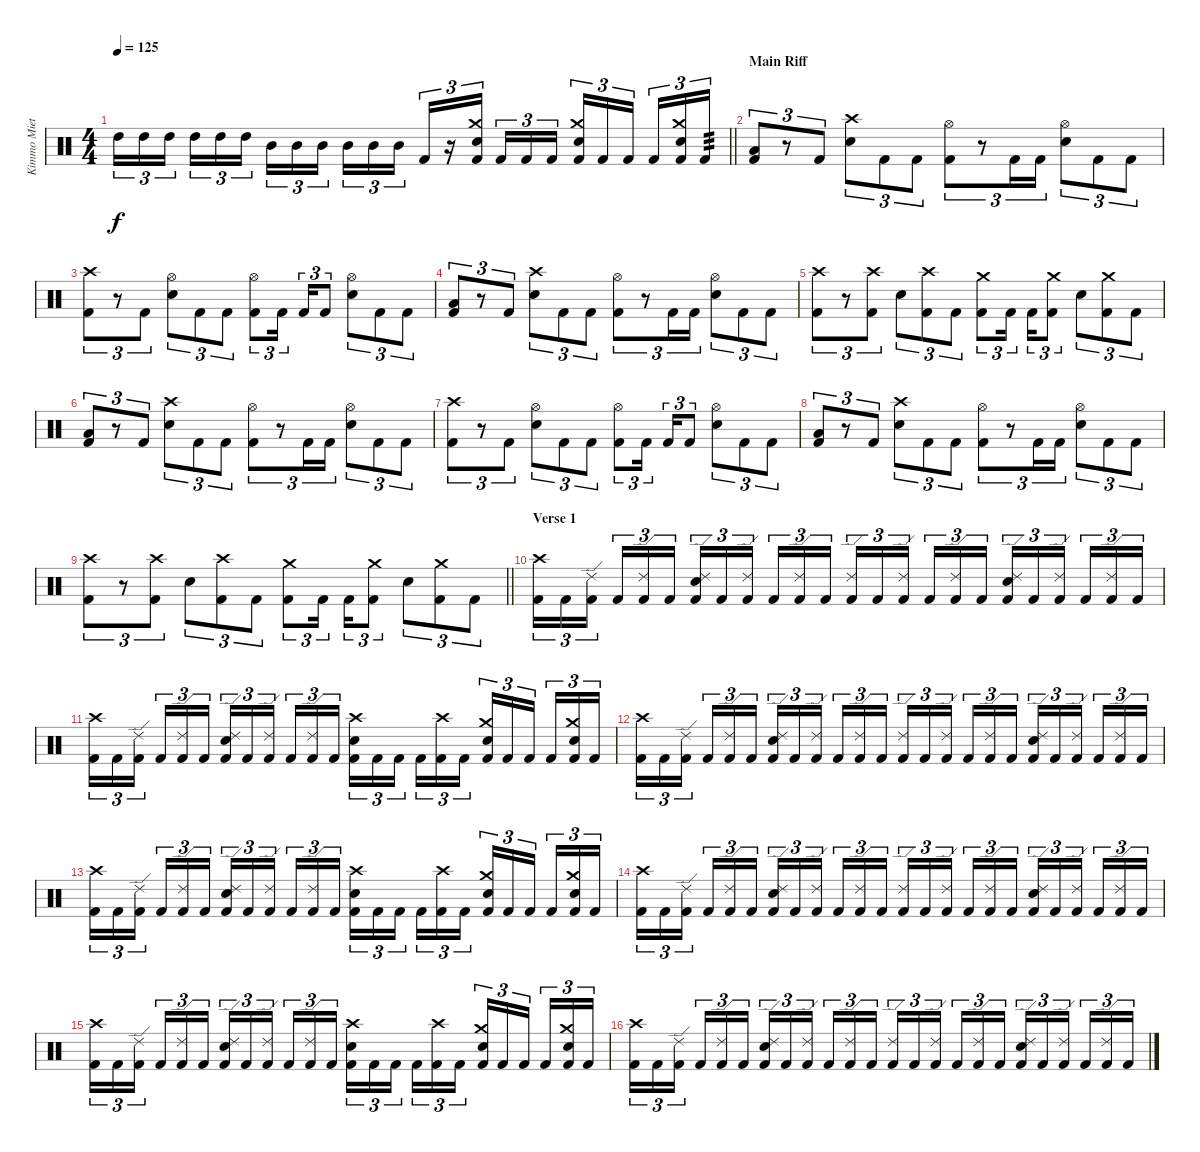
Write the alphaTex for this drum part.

\track ("Kimmo Miettinen" "Kimmo Miet") {instrument percussion}
\staff {score}
\articulation defaults
\ts (4 4)
\tempo 125
\clef neutral
\barLineRight lightlight
\ks c "High Tom (hit)".16{tu (3 2) dy f} "High Tom (hit)".16{tu (3 2)} "High Tom (hit)".16{tu (3 2) beam splitsecondary} "High Tom (hit)".16{tu (3 2)} "High Tom (hit)".16{tu (3 2)} "High Tom (hit)".16{tu (3 2)} "Mid Tom (hit)".16{tu (3 2)} "Mid Tom (hit)".16{tu (3 2)} "Mid Tom (hit)".16{tu (3 2) beam splitsecondary} "Mid Tom (hit)".16{tu (3 2)} "Mid Tom (hit)".16{tu (3 2)} "Mid Tom (hit)".16{tu (3 2)} "Kick (hit) 2".16{tu (3 2)}
r.16{tu (3 2)} ("Crash medium (hit)" "Electric Snare (hit)" "Kick (hit) 2").16{tu (3 2) beam splitsecondary} "Kick (hit) 2".16{tu (3 2)} "Kick (hit) 2".16{tu (3 2)} "Kick (hit) 2".16{tu (3 2)} ("Crash medium (hit)" "Electric Snare (hit)" "Kick (hit) 2").16{tu (3 2)} "Kick (hit) 2".16{tu (3 2)} "Kick (hit) 2".16{tu (3 2) beam splitsecondary} "Kick (hit) 2".16{tu (3 2)} ("Crash medium (hit)" "Electric Snare (hit)" "Kick (hit) 2").16{tu (3 2)} "Kick (hit) 2".16{tu (3 2) tp 3} |
\section ("" "Main Riff")
("Low Floor Tom (hit)" "Kick (hit) 2").8{tu (3 2)} r.8{tu (3 2)} "Kick (hit) 2".8{tu (3 2)} ("Crash high (hit)" "Electric Snare (hit)").8{tu (3 2)} "Kick (hit) 2".8{tu (3 2)} "Kick (hit) 2".8{tu (3 2)} ("Hi-Hat (open)" "Kick (hit) 2").8{tu (3 2)} r.8{tu (3 2)} "Kick (hit) 2".16{tu (3 2)} "Kick (hit) 2".16{tu (3 2)} ("Hi-Hat (open)" "Electric Snare (hit)").8{tu (3 2)} "Kick (hit) 2".8{tu (3 2)} "Kick (hit) 2".8{tu (3 2)} |
("Crash high (hit)" "Kick (hit) 2").8{tu (3 2)} r.8{tu (3 2)} "Kick (hit) 2".8{tu (3 2)} ("Hi-Hat (open)" "Electric Snare (hit)").8{tu (3 2)} "Kick (hit) 2".8{tu (3 2)} "Kick (hit) 2".8{tu (3 2)} ("Hi-Hat (open)" "Kick (hit) 2").8{tu (3 2)} "Kick (hit) 2".16{tu (3 2) beam splitsecondary} "Kick (hit) 2".16{tu (3 2)} "Kick (hit) 2".8{tu (3 2)} ("Hi-Hat (open)" "Electric Snare (hit)").8{tu (3 2)} "Kick (hit) 2".8{tu (3 2)} "Kick (hit) 2".8{tu (3 2)} |
("Low Floor Tom (hit)" "Kick (hit) 2").8{tu (3 2)} r.8{tu (3 2)} "Kick (hit) 2".8{tu (3 2)} ("Crash high (hit)" "Electric Snare (hit)").8{tu (3 2)} "Kick (hit) 2".8{tu (3 2)} "Kick (hit) 2".8{tu (3 2)} ("Hi-Hat (open)" "Kick (hit) 2").8{tu (3 2)} r.8{tu (3 2)} "Kick (hit) 2".16{tu (3 2)} "Kick (hit) 2".16{tu (3 2)} ("Hi-Hat (open)" "Electric Snare (hit)").8{tu (3 2)} "Kick (hit) 2".8{tu (3 2)} "Kick (hit) 2".8{tu (3 2)} |
("Crash high (hit)" "Kick (hit) 2").8{tu (3 2)} r.8{tu (3 2)} ("Crash high (hit)" "Kick (hit) 2").8{tu (3 2)} "Electric Snare (hit)".8{tu (3 2)} ("Crash high (hit)" "Kick (hit) 2").8{tu (3 2)} "Kick (hit) 2".8{tu (3 2)} ("Crash medium (hit)" "Kick (hit) 2").8{tu (3 2)} "Kick (hit) 2".16{tu (3 2) beam splitsecondary} "Kick (hit) 2".16{tu (3 2)} ("Crash medium (hit)" "Kick (hit) 2").8{tu (3 2)} "Electric Snare (hit)".8{tu (3 2)} ("Crash medium (hit)" "Kick (hit) 2").8{tu (3 2)} "Kick (hit) 2".8{tu (3 2)} |
("Low Floor Tom (hit)" "Kick (hit) 2").8{tu (3 2)} r.8{tu (3 2)} "Kick (hit) 2".8{tu (3 2)} ("Crash high (hit)" "Electric Snare (hit)").8{tu (3 2)} "Kick (hit) 2".8{tu (3 2)} "Kick (hit) 2".8{tu (3 2)} ("Hi-Hat (open)" "Kick (hit) 2").8{tu (3 2)} r.8{tu (3 2)} "Kick (hit) 2".16{tu (3 2)} "Kick (hit) 2".16{tu (3 2)} ("Hi-Hat (open)" "Electric Snare (hit)").8{tu (3 2)} "Kick (hit) 2".8{tu (3 2)} "Kick (hit) 2".8{tu (3 2)} |
("Crash high (hit)" "Kick (hit) 2").8{tu (3 2)} r.8{tu (3 2)} "Kick (hit) 2".8{tu (3 2)} ("Hi-Hat (open)" "Electric Snare (hit)").8{tu (3 2)} "Kick (hit) 2".8{tu (3 2)} "Kick (hit) 2".8{tu (3 2)} ("Hi-Hat (open)" "Kick (hit) 2").8{tu (3 2)} "Kick (hit) 2".16{tu (3 2) beam splitsecondary} "Kick (hit) 2".16{tu (3 2)} "Kick (hit) 2".8{tu (3 2)} ("Hi-Hat (open)" "Electric Snare (hit)").8{tu (3 2)} "Kick (hit) 2".8{tu (3 2)} "Kick (hit) 2".8{tu (3 2)} |
("Low Floor Tom (hit)" "Kick (hit) 2").8{tu (3 2)} r.8{tu (3 2)} "Kick (hit) 2".8{tu (3 2)} ("Crash high (hit)" "Electric Snare (hit)").8{tu (3 2)} "Kick (hit) 2".8{tu (3 2)} "Kick (hit) 2".8{tu (3 2)} ("Hi-Hat (open)" "Kick (hit) 2").8{tu (3 2)} r.8{tu (3 2)} "Kick (hit) 2".16{tu (3 2)} "Kick (hit) 2".16{tu (3 2)} ("Hi-Hat (open)" "Electric Snare (hit)").8{tu (3 2)} "Kick (hit) 2".8{tu (3 2)} "Kick (hit) 2".8{tu (3 2)} |
\barLineRight lightlight
("Crash high (hit)" "Kick (hit) 2").8{tu (3 2)} r.8{tu (3 2)} ("Crash high (hit)" "Kick (hit) 2").8{tu (3 2)} "Electric Snare (hit)".8{tu (3 2)} ("Crash high (hit)" "Kick (hit) 2").8{tu (3 2)} "Kick (hit) 2".8{tu (3 2)} ("Crash medium (hit)" "Kick (hit) 2").8{tu (3 2)} "Kick (hit) 2".16{tu (3 2) beam splitsecondary} "Kick (hit) 2".16{tu (3 2)} ("Crash medium (hit)" "Kick (hit) 2").8{tu (3 2)} "Electric Snare (hit)".8{tu (3 2)} ("Crash medium (hit)" "Kick (hit) 2").8{tu (3 2)} "Kick (hit) 2".8{tu (3 2)} |
\section ("" "Verse 1")
("Crash high (hit)" "Kick (hit) 2").16{tu (3 2)} "Kick (hit) 2".16{tu (3 2)} ("Ride (edge) 2" "Kick (hit) 2").16{tu (3 2) beam splitsecondary} "Kick (hit) 2".16{tu (3 2)} ("Ride (edge) 2" "Kick (hit) 2").16{tu (3 2)} "Kick (hit) 2".16{tu (3 2)} ("Ride (edge) 2" "Electric Snare (hit)" "Kick (hit) 2").16{tu (3 2)} "Kick (hit) 2".16{tu (3 2)} ("Ride (edge) 2" "Kick (hit) 2").16{tu (3 2) beam splitsecondary} "Kick (hit) 2".16{tu (3 2)} ("Ride (edge) 2" "Kick (hit) 2").16{tu (3 2)} "Kick (hit) 2".16{tu (3 2)} ("Ride (edge) 2" "Kick (hit) 2").16{tu (3 2)} "Kick (hit) 2".16{tu (3 2)} ("Ride (edge) 2" "Kick (hit) 2").16{tu (3 2) beam splitsecondary} "Kick (hit) 2".16{tu (3 2)} ("Ride (edge) 2" "Kick (hit) 2").16{tu (3 2)} "Kick (hit) 2".16{tu (3 2)} ("Ride (edge) 2" "Electric Snare (hit)" "Kick (hit) 2").16{tu (3 2)} "Kick (hit) 2".16{tu (3 2)} ("Ride (edge) 2" "Kick (hit) 2").16{tu (3 2) beam splitsecondary} "Kick (hit) 2".16{tu (3 2)} ("Ride (edge) 2" "Kick (hit) 2").16{tu (3 2)} "Kick (hit) 2".16{tu (3 2)} |
("Crash high (hit)" "Kick (hit) 2").16{tu (3 2)} "Kick (hit) 2".16{tu (3 2)} ("Ride (edge) 2" "Kick (hit) 2").16{tu (3 2) beam splitsecondary} "Kick (hit) 2".16{tu (3 2)} ("Ride (edge) 2" "Kick (hit) 2").16{tu (3 2)} "Kick (hit) 2".16{tu (3 2)} ("Ride (edge) 2" "Electric Snare (hit)" "Kick (hit) 2").16{tu (3 2)} "Kick (hit) 2".16{tu (3 2)} ("Ride (edge) 2" "Kick (hit) 2").16{tu (3 2) beam splitsecondary} "Kick (hit) 2".16{tu (3 2)} ("Ride (edge) 2" "Kick (hit) 2").16{tu (3 2)} "Kick (hit) 2".16{tu (3 2)} ("Crash high (hit)" "Electric Snare (hit)" "Kick (hit) 2").16{tu (3 2)} "Kick (hit) 2".16{tu (3 2)} "Kick (hit) 2".16{tu (3 2) beam splitsecondary} "Kick (hit) 2".16{tu (3 2)} ("Crash high (hit)" "Kick (hit) 2").16{tu (3 2)} "Kick (hit) 2".16{tu (3 2)} ("Crash medium (hit)" "Electric Snare (hit)" "Kick (hit) 2").16{tu (3 2)} "Kick (hit) 2".16{tu (3 2)} "Kick (hit) 2".16{tu (3 2) beam splitsecondary} "Kick (hit) 2".16{tu (3 2)} ("Crash medium (hit)" "Electric Snare (hit)" "Kick (hit) 2").16{tu (3 2)} "Kick (hit) 2".16{tu (3 2)} |
("Crash high (hit)" "Kick (hit) 2").16{tu (3 2)} "Kick (hit) 2".16{tu (3 2)} ("Ride (edge) 2" "Kick (hit) 2").16{tu (3 2) beam splitsecondary} "Kick (hit) 2".16{tu (3 2)} ("Ride (edge) 2" "Kick (hit) 2").16{tu (3 2)} "Kick (hit) 2".16{tu (3 2)} ("Ride (edge) 2" "Electric Snare (hit)" "Kick (hit) 2").16{tu (3 2)} "Kick (hit) 2".16{tu (3 2)} ("Ride (edge) 2" "Kick (hit) 2").16{tu (3 2) beam splitsecondary} "Kick (hit) 2".16{tu (3 2)} ("Ride (edge) 2" "Kick (hit) 2").16{tu (3 2)} "Kick (hit) 2".16{tu (3 2)} ("Ride (edge) 2" "Kick (hit) 2").16{tu (3 2)} "Kick (hit) 2".16{tu (3 2)} ("Ride (edge) 2" "Kick (hit) 2").16{tu (3 2) beam splitsecondary} "Kick (hit) 2".16{tu (3 2)} ("Ride (edge) 2" "Kick (hit) 2").16{tu (3 2)} "Kick (hit) 2".16{tu (3 2)} ("Ride (edge) 2" "Electric Snare (hit)" "Kick (hit) 2").16{tu (3 2)} "Kick (hit) 2".16{tu (3 2)} ("Ride (edge) 2" "Kick (hit) 2").16{tu (3 2) beam splitsecondary} "Kick (hit) 2".16{tu (3 2)} ("Ride (edge) 2" "Kick (hit) 2").16{tu (3 2)} "Kick (hit) 2".16{tu (3 2)} |
("Crash high (hit)" "Kick (hit) 2").16{tu (3 2)} "Kick (hit) 2".16{tu (3 2)} ("Ride (edge) 2" "Kick (hit) 2").16{tu (3 2) beam splitsecondary} "Kick (hit) 2".16{tu (3 2)} ("Ride (edge) 2" "Kick (hit) 2").16{tu (3 2)} "Kick (hit) 2".16{tu (3 2)} ("Ride (edge) 2" "Electric Snare (hit)" "Kick (hit) 2").16{tu (3 2)} "Kick (hit) 2".16{tu (3 2)} ("Ride (edge) 2" "Kick (hit) 2").16{tu (3 2) beam splitsecondary} "Kick (hit) 2".16{tu (3 2)} ("Ride (edge) 2" "Kick (hit) 2").16{tu (3 2)} "Kick (hit) 2".16{tu (3 2)} ("Crash high (hit)" "Electric Snare (hit)" "Kick (hit) 2").16{tu (3 2)} "Kick (hit) 2".16{tu (3 2)} "Kick (hit) 2".16{tu (3 2) beam splitsecondary} "Kick (hit) 2".16{tu (3 2)} ("Crash high (hit)" "Kick (hit) 2").16{tu (3 2)} "Kick (hit) 2".16{tu (3 2)} ("Crash medium (hit)" "Electric Snare (hit)" "Kick (hit) 2").16{tu (3 2)} "Kick (hit) 2".16{tu (3 2)} "Kick (hit) 2".16{tu (3 2) beam splitsecondary} "Kick (hit) 2".16{tu (3 2)} ("Crash medium (hit)" "Electric Snare (hit)" "Kick (hit) 2").16{tu (3 2)} "Kick (hit) 2".16{tu (3 2)} |
("Crash high (hit)" "Kick (hit) 2").16{tu (3 2)} "Kick (hit) 2".16{tu (3 2)} ("Ride (edge) 2" "Kick (hit) 2").16{tu (3 2) beam splitsecondary} "Kick (hit) 2".16{tu (3 2)} ("Ride (edge) 2" "Kick (hit) 2").16{tu (3 2)} "Kick (hit) 2".16{tu (3 2)} ("Ride (edge) 2" "Electric Snare (hit)" "Kick (hit) 2").16{tu (3 2)} "Kick (hit) 2".16{tu (3 2)} ("Ride (edge) 2" "Kick (hit) 2").16{tu (3 2) beam splitsecondary} "Kick (hit) 2".16{tu (3 2)} ("Ride (edge) 2" "Kick (hit) 2").16{tu (3 2)} "Kick (hit) 2".16{tu (3 2)} ("Ride (edge) 2" "Kick (hit) 2").16{tu (3 2)} "Kick (hit) 2".16{tu (3 2)} ("Ride (edge) 2" "Kick (hit) 2").16{tu (3 2) beam splitsecondary} "Kick (hit) 2".16{tu (3 2)} ("Ride (edge) 2" "Kick (hit) 2").16{tu (3 2)} "Kick (hit) 2".16{tu (3 2)} ("Ride (edge) 2" "Electric Snare (hit)" "Kick (hit) 2").16{tu (3 2)} "Kick (hit) 2".16{tu (3 2)} ("Ride (edge) 2" "Kick (hit) 2").16{tu (3 2) beam splitsecondary} "Kick (hit) 2".16{tu (3 2)} ("Ride (edge) 2" "Kick (hit) 2").16{tu (3 2)} "Kick (hit) 2".16{tu (3 2)} |
("Crash high (hit)" "Kick (hit) 2").16{tu (3 2)} "Kick (hit) 2".16{tu (3 2)} ("Ride (edge) 2" "Kick (hit) 2").16{tu (3 2) beam splitsecondary} "Kick (hit) 2".16{tu (3 2)} ("Ride (edge) 2" "Kick (hit) 2").16{tu (3 2)} "Kick (hit) 2".16{tu (3 2)} ("Ride (edge) 2" "Electric Snare (hit)" "Kick (hit) 2").16{tu (3 2)} "Kick (hit) 2".16{tu (3 2)} ("Ride (edge) 2" "Kick (hit) 2").16{tu (3 2) beam splitsecondary} "Kick (hit) 2".16{tu (3 2)} ("Ride (edge) 2" "Kick (hit) 2").16{tu (3 2)} "Kick (hit) 2".16{tu (3 2)} ("Crash high (hit)" "Electric Snare (hit)" "Kick (hit) 2").16{tu (3 2)} "Kick (hit) 2".16{tu (3 2)} "Kick (hit) 2".16{tu (3 2) beam splitsecondary} "Kick (hit) 2".16{tu (3 2)} ("Crash high (hit)" "Kick (hit) 2").16{tu (3 2)} "Kick (hit) 2".16{tu (3 2)} ("Crash medium (hit)" "Electric Snare (hit)" "Kick (hit) 2").16{tu (3 2)} "Kick (hit) 2".16{tu (3 2)} "Kick (hit) 2".16{tu (3 2) beam splitsecondary} "Kick (hit) 2".16{tu (3 2)} ("Crash medium (hit)" "Electric Snare (hit)" "Kick (hit) 2").16{tu (3 2)} "Kick (hit) 2".16{tu (3 2)} |
("Crash high (hit)" "Kick (hit) 2").16{tu (3 2)} "Kick (hit) 2".16{tu (3 2)} ("Ride (edge) 2" "Kick (hit) 2").16{tu (3 2) beam splitsecondary} "Kick (hit) 2".16{tu (3 2)} ("Ride (edge) 2" "Kick (hit) 2").16{tu (3 2)} "Kick (hit) 2".16{tu (3 2)} ("Ride (edge) 2" "Electric Snare (hit)" "Kick (hit) 2").16{tu (3 2)} "Kick (hit) 2".16{tu (3 2)} ("Ride (edge) 2" "Kick (hit) 2").16{tu (3 2) beam splitsecondary} "Kick (hit) 2".16{tu (3 2)} ("Ride (edge) 2" "Kick (hit) 2").16{tu (3 2)} "Kick (hit) 2".16{tu (3 2)} ("Ride (edge) 2" "Kick (hit) 2").16{tu (3 2)} "Kick (hit) 2".16{tu (3 2)} ("Ride (edge) 2" "Kick (hit) 2").16{tu (3 2) beam splitsecondary} "Kick (hit) 2".16{tu (3 2)} ("Ride (edge) 2" "Kick (hit) 2").16{tu (3 2)} "Kick (hit) 2".16{tu (3 2)} ("Ride (edge) 2" "Electric Snare (hit)" "Kick (hit) 2").16{tu (3 2)} "Kick (hit) 2".16{tu (3 2)} ("Ride (edge) 2" "Kick (hit) 2").16{tu (3 2) beam splitsecondary} "Kick (hit) 2".16{tu (3 2)} ("Ride (edge) 2" "Kick (hit) 2").16{tu (3 2)} "Kick (hit) 2".16{tu (3 2)}
